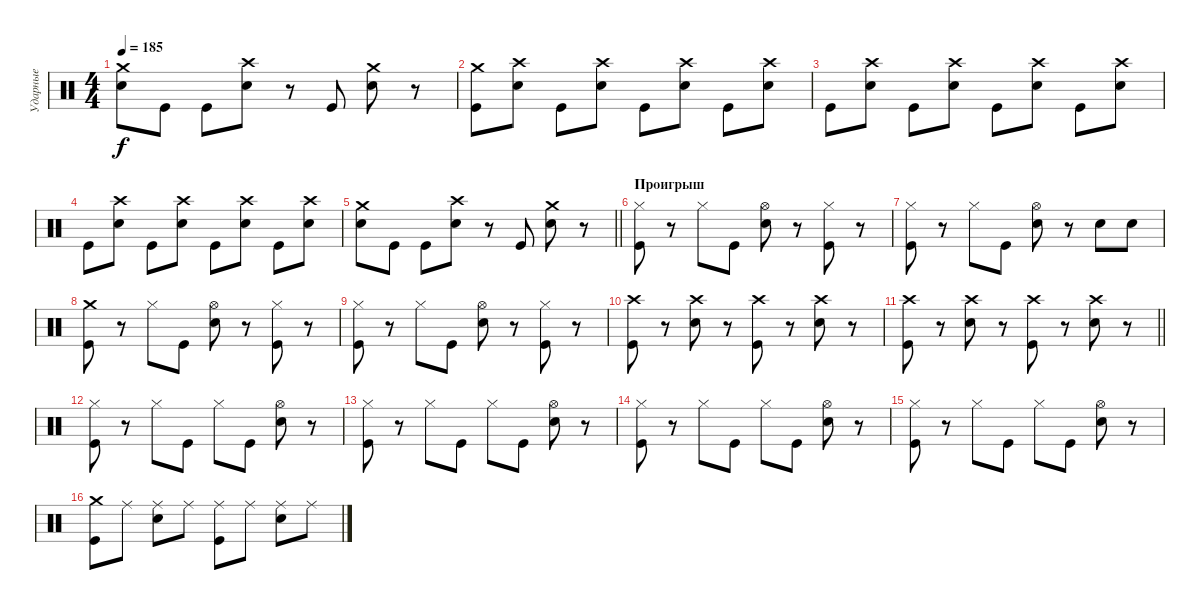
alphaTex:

\track ("Ударные" "Ударные") {instrument percussion}
\staff {score}
\articulation defaults
\ts (4 4)
\tempo 185
\clef neutral
\ks c
("Crash medium (hit)" "Electric Snare (hit)").8{dy f} "Kick (hit)".8 "Kick (hit)".8 ("Crash high (hit)" "Electric Snare (hit)").8 r.8 "Kick (hit)".8 ("Crash medium (hit)" "Electric Snare (hit)").8 r.8 |
("Crash medium (hit)" "Kick (hit)").8 ("Crash high (hit)" "Electric Snare (hit)").8 "Kick (hit)".8 ("Crash high (hit)" "Electric Snare (hit)").8 "Kick (hit)".8 ("Crash high (hit)" "Electric Snare (hit)").8 "Kick (hit)".8 ("Crash high (hit)" "Electric Snare (hit)").8 |
"Kick (hit)".8 ("Crash high (hit)" "Electric Snare (hit)").8 "Kick (hit)".8 ("Crash high (hit)" "Electric Snare (hit)").8 "Kick (hit)".8 ("Crash high (hit)" "Electric Snare (hit)").8 "Kick (hit)".8 ("Crash high (hit)" "Electric Snare (hit)").8 |
"Kick (hit)".8 ("Crash high (hit)" "Electric Snare (hit)").8 "Kick (hit)".8 ("Crash high (hit)" "Electric Snare (hit)").8 "Kick (hit)".8 ("Crash high (hit)" "Electric Snare (hit)").8 "Kick (hit)".8 ("Crash high (hit)" "Electric Snare (hit)").8 |
\barLineRight lightlight
("Crash medium (hit)" "Electric Snare (hit)").8 "Kick (hit)".8 "Kick (hit)".8 ("Crash high (hit)" "Electric Snare (hit)").8 r.8 "Kick (hit)".8 ("Crash medium (hit)" "Electric Snare (hit)").8 r.8 |
\section ("" "Проигрыш")
("Hi-Hat (closed)" "Kick (hit)").8 r.8 "Hi-Hat (closed)".8 "Kick (hit)".8 ("Hi-Hat (open)" "Electric Snare (hit)").8 r.8 ("Hi-Hat (closed)" "Kick (hit)").8 r.8 |
("Hi-Hat (closed)" "Kick (hit)").8 r.8 "Hi-Hat (closed)".8 "Kick (hit)".8 ("Hi-Hat (open)" "Electric Snare (hit)").8 r.8 "Electric Snare (hit)".8 "Electric Snare (hit)".8 |
("Crash medium (hit)" "Kick (hit)").8 r.8 "Hi-Hat (closed)".8 "Kick (hit)".8 ("Hi-Hat (open)" "Electric Snare (hit)").8 r.8 ("Hi-Hat (closed)" "Kick (hit)").8 r.8 |
("Hi-Hat (closed)" "Kick (hit)").8 r.8 "Hi-Hat (closed)".8 "Kick (hit)".8 ("Hi-Hat (open)" "Electric Snare (hit)").8 r.8 ("Hi-Hat (closed)" "Kick (hit)").8 r.8 |
("Crash high (hit)" "Kick (hit)").8 r.8 ("Crash high (hit)" "Electric Snare (hit)").8 r.8 ("Crash high (hit)" "Kick (hit)").8 r.8 ("Crash high (hit)" "Electric Snare (hit)").8 r.8 |
\barLineRight lightlight
("Crash high (hit)" "Kick (hit)").8 r.8 ("Crash high (hit)" "Electric Snare (hit)").8 r.8 ("Crash high (hit)" "Kick (hit)").8 r.8 ("Crash high (hit)" "Electric Snare (hit)").8 r.8 |
\section ("" " ")
("Hi-Hat (closed)" "Kick (hit)").8 r.8 "Hi-Hat (closed)".8 "Kick (hit)".8 "Hi-Hat (closed)".8 "Kick (hit)".8 ("Hi-Hat (open)" "Electric Snare (hit)").8 r.8 |
("Hi-Hat (closed)" "Kick (hit)").8 r.8 "Hi-Hat (closed)".8 "Kick (hit)".8 "Hi-Hat (closed)".8 "Kick (hit)".8 ("Hi-Hat (open)" "Electric Snare (hit)").8 r.8 |
("Hi-Hat (closed)" "Kick (hit)").8 r.8 "Hi-Hat (closed)".8 "Kick (hit)".8 "Hi-Hat (closed)".8 "Kick (hit)".8 ("Hi-Hat (open)" "Electric Snare (hit)").8 r.8 |
("Hi-Hat (closed)" "Kick (hit)").8 r.8 "Hi-Hat (closed)".8 "Kick (hit)".8 "Hi-Hat (closed)".8 "Kick (hit)".8 ("Hi-Hat (open)" "Electric Snare (hit)").8 r.8 |
("Crash medium (hit)" "Kick (hit)").8 "Ride (middle)".8 ("Ride (middle)" "Electric Snare (hit)").8 "Ride (middle)".8 ("Ride (middle)" "Kick (hit)").8 "Ride (middle)".8 ("Ride (middle)" "Electric Snare (hit)").8 "Ride (middle)".8
